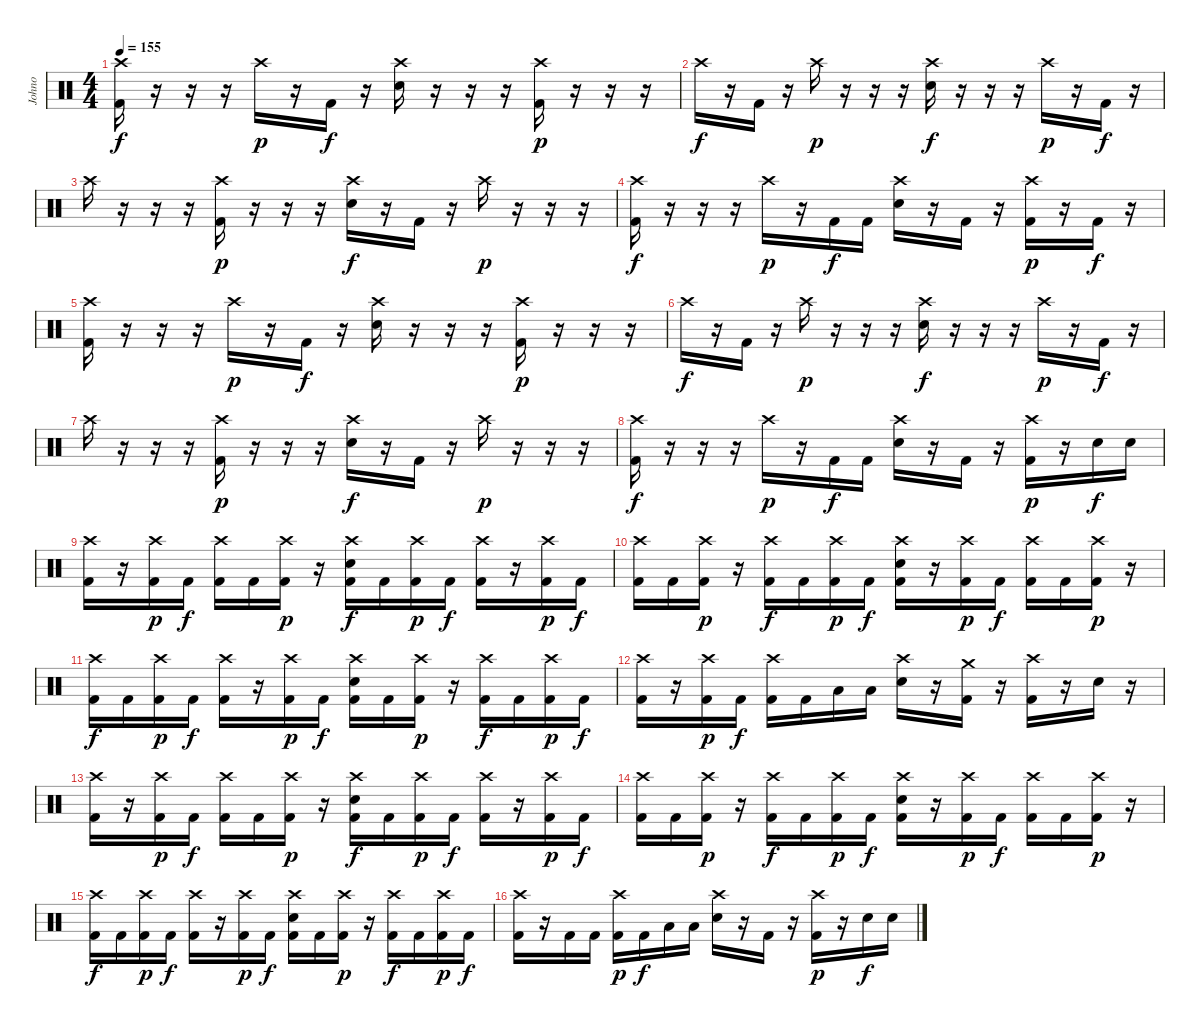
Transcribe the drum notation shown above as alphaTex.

\track ("Johno" "Johno") {instrument percussion}
\staff {score}
\articulation defaults
\ts (4 4)
\tempo 155
\clef neutral
\ks c
("Crash high (hit)" "Kick (hit) 2").16{dy f} r.16 r.16 r.16 "Crash high (hit)".16{dy p} r.16 "Kick (hit) 2".16{dy f} r.16 ("Crash high (hit)" "Electric Snare (hit)").16 r.16 r.16 r.16 ("Crash high (hit)" "Kick (hit) 2").16{dy p} r.16 r.16 r.16 |
"Crash high (hit)".16{dy f} r.16 "Kick (hit) 2".16 r.16 "Crash high (hit)".16{dy p} r.16 r.16 r.16 ("Crash high (hit)" "Electric Snare (hit)").16{dy f} r.16 r.16 r.16 "Crash high (hit)".16{dy p} r.16 "Kick (hit) 2".16{dy f} r.16 |
"Crash high (hit)".16 r.16 r.16 r.16 ("Crash high (hit)" "Kick (hit) 2").16{dy p} r.16 r.16 r.16 ("Crash high (hit)" "Electric Snare (hit)").16{dy f} r.16 "Kick (hit) 2".16 r.16 "Crash high (hit)".16{dy p} r.16 r.16 r.16 |
("Crash high (hit)" "Kick (hit) 2").16{dy f} r.16 r.16 r.16 "Crash high (hit)".16{dy p} r.16 "Kick (hit) 2".16{dy f} "Kick (hit) 2".16 ("Crash high (hit)" "Electric Snare (hit)").16 r.16 "Kick (hit) 2".16 r.16 ("Crash high (hit)" "Kick (hit) 2").16{dy p} r.16 "Kick (hit) 2".16{dy f} r.16 |
("Crash high (hit)" "Kick (hit) 2").16 r.16 r.16 r.16 "Crash high (hit)".16{dy p} r.16 "Kick (hit) 2".16{dy f} r.16 ("Crash high (hit)" "Electric Snare (hit)").16 r.16 r.16 r.16 ("Crash high (hit)" "Kick (hit) 2").16{dy p} r.16 r.16 r.16 |
"Crash high (hit)".16{dy f} r.16 "Kick (hit) 2".16 r.16 "Crash high (hit)".16{dy p} r.16 r.16 r.16 ("Crash high (hit)" "Electric Snare (hit)").16{dy f} r.16 r.16 r.16 "Crash high (hit)".16{dy p} r.16 "Kick (hit) 2".16{dy f} r.16 |
"Crash high (hit)".16 r.16 r.16 r.16 ("Crash high (hit)" "Kick (hit) 2").16{dy p} r.16 r.16 r.16 ("Crash high (hit)" "Electric Snare (hit)").16{dy f} r.16 "Kick (hit) 2".16 r.16 "Crash high (hit)".16{dy p} r.16 r.16 r.16 |
("Crash high (hit)" "Kick (hit) 2").16{dy f} r.16 r.16 r.16 "Crash high (hit)".16{dy p} r.16 "Kick (hit) 2".16{dy f} "Kick (hit) 2".16 ("Crash high (hit)" "Electric Snare (hit)").16 r.16 "Kick (hit) 2".16 r.16 ("Crash high (hit)" "Kick (hit) 2").16{dy p} r.16 "Electric Snare (hit)".16{dy f} "Electric Snare (hit)".16 |
("Crash high (hit)" "Kick (hit) 2").16 r.16 ("Crash high (hit)" "Kick (hit) 2").16{dy p} "Kick (hit) 2".16{dy f} ("Crash high (hit)" "Kick (hit) 2").16 "Kick (hit) 2".16 ("Crash high (hit)" "Kick (hit) 2").16{dy p} r.16 ("Crash high (hit)" "Electric Snare (hit)" "Kick (hit) 2").16{dy f} "Kick (hit) 2".16 ("Crash high (hit)" "Kick (hit) 2").16{dy p} "Kick (hit) 2".16{dy f} ("Crash high (hit)" "Kick (hit) 2").16 r.16 ("Crash high (hit)" "Kick (hit) 2").16{dy p} "Kick (hit) 2".16{dy f} |
("Crash high (hit)" "Kick (hit) 2").16 "Kick (hit) 2".16 ("Crash high (hit)" "Kick (hit) 2").16{dy p} r.16 ("Crash high (hit)" "Kick (hit) 2").16{dy f} "Kick (hit) 2".16 ("Crash high (hit)" "Kick (hit) 2").16{dy p} "Kick (hit) 2".16{dy f} ("Crash high (hit)" "Electric Snare (hit)" "Kick (hit) 2").16 r.16 ("Crash high (hit)" "Kick (hit) 2").16{dy p} "Kick (hit) 2".16{dy f} ("Crash high (hit)" "Kick (hit) 2").16 "Kick (hit) 2".16 ("Crash high (hit)" "Kick (hit) 2").16{dy p} r.16 |
("Crash high (hit)" "Kick (hit) 2").16{dy f} "Kick (hit) 2".16 ("Crash high (hit)" "Kick (hit) 2").16{dy p} "Kick (hit) 2".16{dy f} ("Crash high (hit)" "Kick (hit) 2").16 r.16 ("Crash high (hit)" "Kick (hit) 2").16{dy p} "Kick (hit) 2".16{dy f} ("Crash high (hit)" "Electric Snare (hit)" "Kick (hit) 2").16 "Kick (hit) 2".16 ("Crash high (hit)" "Kick (hit) 2").16{dy p} r.16 ("Crash high (hit)" "Kick (hit) 2").16{dy f} "Kick (hit) 2".16 ("Crash high (hit)" "Kick (hit) 2").16{dy p} "Kick (hit) 2".16{dy f} |
("Crash high (hit)" "Kick (hit) 2").16 r.16 ("Crash high (hit)" "Kick (hit) 2").16{dy p} "Kick (hit) 2".16{dy f} ("Crash high (hit)" "Kick (hit) 2").16 "Kick (hit) 2".16 "Low Tom (hit)".16 "Low Tom (hit)".16 ("Crash high (hit)" "Electric Snare (hit)").16 r.16 ("Crash medium (hit)" "Kick (hit) 2").16 r.16 ("Crash high (hit)" "Kick (hit) 2").16 r.16 "Electric Snare (hit)".16 r.16 |
("Crash high (hit)" "Kick (hit) 2").16 r.16 ("Crash high (hit)" "Kick (hit) 2").16{dy p} "Kick (hit) 2".16{dy f} ("Crash high (hit)" "Kick (hit) 2").16 "Kick (hit) 2".16 ("Crash high (hit)" "Kick (hit) 2").16{dy p} r.16 ("Crash high (hit)" "Electric Snare (hit)" "Kick (hit) 2").16{dy f} "Kick (hit) 2".16 ("Crash high (hit)" "Kick (hit) 2").16{dy p} "Kick (hit) 2".16{dy f} ("Crash high (hit)" "Kick (hit) 2").16 r.16 ("Crash high (hit)" "Kick (hit) 2").16{dy p} "Kick (hit) 2".16{dy f} |
("Crash high (hit)" "Kick (hit) 2").16 "Kick (hit) 2".16 ("Crash high (hit)" "Kick (hit) 2").16{dy p} r.16 ("Crash high (hit)" "Kick (hit) 2").16{dy f} "Kick (hit) 2".16 ("Crash high (hit)" "Kick (hit) 2").16{dy p} "Kick (hit) 2".16{dy f} ("Crash high (hit)" "Electric Snare (hit)" "Kick (hit) 2").16 r.16 ("Crash high (hit)" "Kick (hit) 2").16{dy p} "Kick (hit) 2".16{dy f} ("Crash high (hit)" "Kick (hit) 2").16 "Kick (hit) 2".16 ("Crash high (hit)" "Kick (hit) 2").16{dy p} r.16 |
("Crash high (hit)" "Kick (hit) 2").16{dy f} "Kick (hit) 2".16 ("Crash high (hit)" "Kick (hit) 2").16{dy p} "Kick (hit) 2".16{dy f} ("Crash high (hit)" "Kick (hit) 2").16 r.16 ("Crash high (hit)" "Kick (hit) 2").16{dy p} "Kick (hit) 2".16{dy f} ("Crash high (hit)" "Electric Snare (hit)" "Kick (hit) 2").16 "Kick (hit) 2".16 ("Crash high (hit)" "Kick (hit) 2").16{dy p} r.16 ("Crash high (hit)" "Kick (hit) 2").16{dy f} "Kick (hit) 2".16 ("Crash high (hit)" "Kick (hit) 2").16{dy p} "Kick (hit) 2".16{dy f} |
("Crash high (hit)" "Kick (hit) 2").16 r.16 "Kick (hit) 2".16 "Kick (hit) 2".16 ("Crash high (hit)" "Kick (hit) 2").16{dy p} "Kick (hit) 2".16{dy f} "Low Tom (hit)".16 "Low Tom (hit)".16 ("Crash high (hit)" "Electric Snare (hit)").16 r.16 "Kick (hit) 2".16 r.16 ("Crash high (hit)" "Kick (hit) 2").16{dy p} r.16 "Electric Snare (hit)".16{dy f} "Electric Snare (hit)".16
